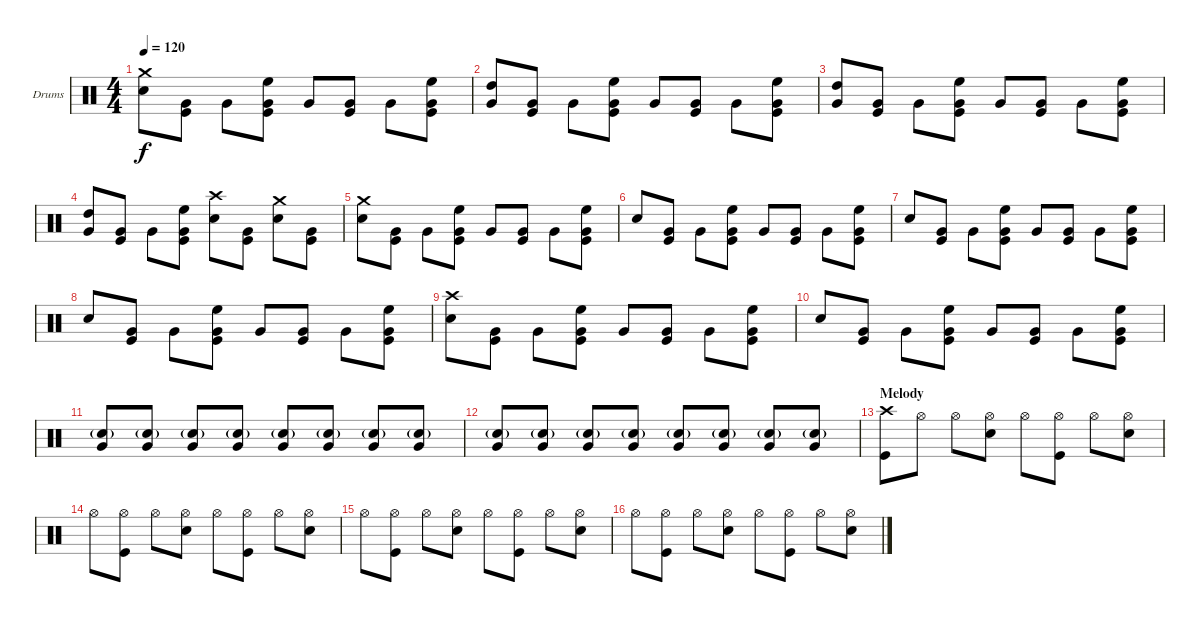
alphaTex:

\bracketExtendMode groupsimilarinstruments
\firstSystemTrackNameOrientation horizontal
\otherSystemsTrackNameOrientation horizontal
\track ("Drumkit" "Drums") {instrument percussion}
\staff {score}
\articulation defaults
\ts (4 4)
\tempo 120
\clef neutral
\ks c
("Crash medium (hit)" "Snare (hit) 2").8{dy f} ("Very Low Tom (hit)" "Kick (hit)").8 "Very Low Tom (hit)".8 ("High Floor Tom (hit)" "Very Low Tom (hit)" "Kick (hit)").8 "Very Low Tom (hit)".8 ("Very Low Tom (hit)" "Kick (hit)").8 "Very Low Tom (hit)".8 ("High Floor Tom (hit)" "Very Low Tom (hit)" "Kick (hit)").8 |
("High Tom (hit)" "Very Low Tom (hit)").8 ("Very Low Tom (hit)" "Kick (hit)").8 "Very Low Tom (hit)".8 ("High Floor Tom (hit)" "Very Low Tom (hit)" "Kick (hit)").8 "Very Low Tom (hit)".8 ("Very Low Tom (hit)" "Kick (hit)").8 "Very Low Tom (hit)".8 ("High Floor Tom (hit)" "Very Low Tom (hit)" "Kick (hit)").8 |
("High Tom (hit)" "Very Low Tom (hit)").8 ("Very Low Tom (hit)" "Kick (hit)").8 "Very Low Tom (hit)".8 ("High Floor Tom (hit)" "Very Low Tom (hit)" "Kick (hit)").8 "Very Low Tom (hit)".8 ("Very Low Tom (hit)" "Kick (hit)").8 "Very Low Tom (hit)".8 ("High Floor Tom (hit)" "Very Low Tom (hit)" "Kick (hit)").8 |
("High Tom (hit)" "Very Low Tom (hit)").8 ("Very Low Tom (hit)" "Kick (hit)").8 "Very Low Tom (hit)".8 ("High Floor Tom (hit)" "Very Low Tom (hit)" "Kick (hit)").8 ("Crash high (hit)" "Snare (hit) 2").8 ("Very Low Tom (hit)" "Kick (hit)").8 ("Crash medium (hit)" "Snare (hit) 2").8 ("Very Low Tom (hit)" "Kick (hit)").8 |
("Crash medium (hit)" "Snare (hit) 2").8 ("Very Low Tom (hit)" "Kick (hit)").8 "Very Low Tom (hit)".8 ("High Floor Tom (hit)" "Very Low Tom (hit)" "Kick (hit)").8 "Very Low Tom (hit)".8 ("Very Low Tom (hit)" "Kick (hit)").8 "Very Low Tom (hit)".8 ("High Floor Tom (hit)" "Very Low Tom (hit)" "Kick (hit)").8 |
"Snare (hit) 2".8 ("Very Low Tom (hit)" "Kick (hit)").8 "Very Low Tom (hit)".8 ("High Floor Tom (hit)" "Very Low Tom (hit)" "Kick (hit)").8 "Very Low Tom (hit)".8 ("Very Low Tom (hit)" "Kick (hit)").8 "Very Low Tom (hit)".8 ("High Floor Tom (hit)" "Very Low Tom (hit)" "Kick (hit)").8 |
"Snare (hit) 2".8 ("Very Low Tom (hit)" "Kick (hit)").8 "Very Low Tom (hit)".8 ("High Floor Tom (hit)" "Very Low Tom (hit)" "Kick (hit)").8 "Very Low Tom (hit)".8 ("Very Low Tom (hit)" "Kick (hit)").8 "Very Low Tom (hit)".8 ("High Floor Tom (hit)" "Very Low Tom (hit)" "Kick (hit)").8 |
"Snare (hit) 2".8 ("Very Low Tom (hit)" "Kick (hit)").8 "Very Low Tom (hit)".8 ("High Floor Tom (hit)" "Very Low Tom (hit)" "Kick (hit)").8 "Very Low Tom (hit)".8 ("Very Low Tom (hit)" "Kick (hit)").8 "Very Low Tom (hit)".8 ("High Floor Tom (hit)" "Very Low Tom (hit)" "Kick (hit)").8 |
("Crash high (hit)" "Snare (hit) 2").8 ("Very Low Tom (hit)" "Kick (hit)").8 "Very Low Tom (hit)".8 ("High Floor Tom (hit)" "Very Low Tom (hit)" "Kick (hit)").8 "Very Low Tom (hit)".8 ("Very Low Tom (hit)" "Kick (hit)").8 "Very Low Tom (hit)".8 ("High Floor Tom (hit)" "Very Low Tom (hit)" "Kick (hit)").8 |
"Snare (hit) 2".8 ("Very Low Tom (hit)" "Kick (hit)").8 "Very Low Tom (hit)".8 ("High Floor Tom (hit)" "Very Low Tom (hit)" "Kick (hit)").8 "Very Low Tom (hit)".8 ("Very Low Tom (hit)" "Kick (hit)").8 "Very Low Tom (hit)".8 ("High Floor Tom (hit)" "Very Low Tom (hit)" "Kick (hit)").8 |
("Very Low Tom (hit)" "Snare (hit) 2"{g}).8 ("Very Low Tom (hit)" "Snare (hit) 2"{g}).8 ("Very Low Tom (hit)" "Snare (hit) 2"{g}).8 ("Very Low Tom (hit)" "Snare (hit) 2"{g}).8 ("Very Low Tom (hit)" "Snare (hit) 2"{g}).8 ("Very Low Tom (hit)" "Snare (hit) 2"{g}).8 ("Very Low Tom (hit)" "Snare (hit) 2"{g}).8 ("Very Low Tom (hit)" "Snare (hit) 2"{g}).8 |
("Very Low Tom (hit)" "Snare (hit) 2"{g}).8 ("Very Low Tom (hit)" "Snare (hit) 2"{g}).8 ("Very Low Tom (hit)" "Snare (hit) 2"{g}).8 ("Very Low Tom (hit)" "Snare (hit) 2"{g}).8 ("Very Low Tom (hit)" "Snare (hit) 2"{g}).8 ("Very Low Tom (hit)" "Snare (hit) 2"{g}).8 ("Very Low Tom (hit)" "Snare (hit) 2"{g}).8 ("Very Low Tom (hit)" "Snare (hit) 2"{g}).8 |
\section ("" "Melody")
("Crash high (hit)" "Kick (hit)").8 "Hi-Hat (open)".8 "Hi-Hat (open)".8 ("Hi-Hat (open)" "Snare (hit) 2").8 "Hi-Hat (open)".8 ("Hi-Hat (open)" "Kick (hit)").8 "Hi-Hat (open)".8 ("Hi-Hat (open)" "Snare (hit) 2").8 |
"Hi-Hat (open)".8 ("Hi-Hat (open)" "Kick (hit)").8 "Hi-Hat (open)".8 ("Hi-Hat (open)" "Snare (hit) 2").8 "Hi-Hat (open)".8 ("Hi-Hat (open)" "Kick (hit)").8 "Hi-Hat (open)".8 ("Hi-Hat (open)" "Snare (hit) 2").8 |
"Hi-Hat (open)".8 ("Hi-Hat (open)" "Kick (hit)").8 "Hi-Hat (open)".8 ("Hi-Hat (open)" "Snare (hit) 2").8 "Hi-Hat (open)".8 ("Hi-Hat (open)" "Kick (hit)").8 "Hi-Hat (open)".8 ("Hi-Hat (open)" "Snare (hit) 2").8 |
"Hi-Hat (open)".8 ("Hi-Hat (open)" "Kick (hit)").8 "Hi-Hat (open)".8 ("Hi-Hat (open)" "Snare (hit) 2").8 "Hi-Hat (open)".8 ("Hi-Hat (open)" "Kick (hit)").8 "Hi-Hat (open)".8 ("Hi-Hat (open)" "Snare (hit) 2").8
